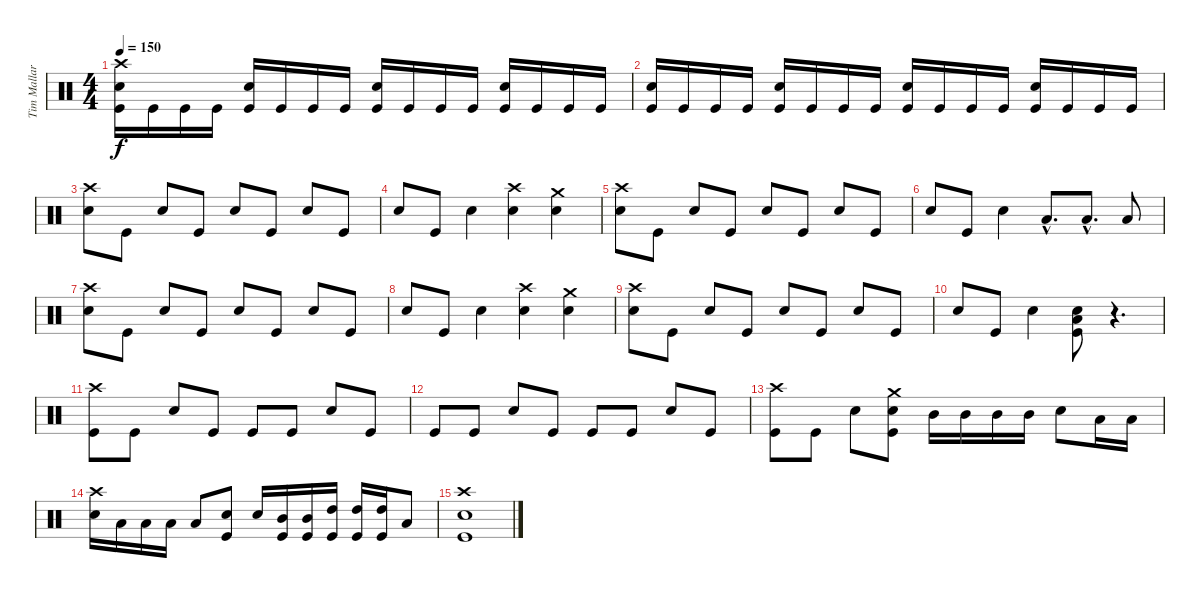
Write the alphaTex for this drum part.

\track ("Tim Mallare-Drums" "Tim Mallar") {instrument percussion}
\staff {score}
\articulation defaults
\ts (4 4)
\tempo 150
\clef neutral
\ks c
("Crash high (hit)" "Electric Snare (hit)" "Kick (hit)").16{dy f} "Kick (hit)".16 "Kick (hit)".16 "Kick (hit)".16 ("Electric Snare (hit)" "Kick (hit)").16 "Kick (hit)".16 "Kick (hit)".16 "Kick (hit)".16 ("Electric Snare (hit)" "Kick (hit)").16 "Kick (hit)".16 "Kick (hit)".16 "Kick (hit)".16 ("Electric Snare (hit)" "Kick (hit)").16 "Kick (hit)".16 "Kick (hit)".16 "Kick (hit)".16 |
("Electric Snare (hit)" "Kick (hit)").16 "Kick (hit)".16 "Kick (hit)".16 "Kick (hit)".16 ("Electric Snare (hit)" "Kick (hit)").16 "Kick (hit)".16 "Kick (hit)".16 "Kick (hit)".16 ("Electric Snare (hit)" "Kick (hit)").16 "Kick (hit)".16 "Kick (hit)".16 "Kick (hit)".16 ("Electric Snare (hit)" "Kick (hit)").16 "Kick (hit)".16 "Kick (hit)".16 "Kick (hit)".16 |
("Crash high (hit)" "Electric Snare (hit)").8 "Kick (hit)".8 "Electric Snare (hit)".8 "Kick (hit)".8 "Electric Snare (hit)".8 "Kick (hit)".8 "Electric Snare (hit)".8 "Kick (hit)".8 |
"Electric Snare (hit)".8 "Kick (hit)".8 "Electric Snare (hit)".4 ("Crash high (hit)" "Electric Snare (hit)").4 ("Crash medium (hit)" "Electric Snare (hit)").4 |
("Crash high (hit)" "Electric Snare (hit)").8 "Kick (hit)".8 "Electric Snare (hit)".8 "Kick (hit)".8 "Electric Snare (hit)".8 "Kick (hit)".8 "Electric Snare (hit)".8 "Kick (hit)".8 |
"Electric Snare (hit)".8 "Kick (hit)".8 "Electric Snare (hit)".4 "Low Tom (hit)"{hac}.8{d} "Low Tom (hit)"{hac}.8{d} "Low Tom (hit)".8 |
("Crash high (hit)" "Electric Snare (hit)").8 "Kick (hit)".8 "Electric Snare (hit)".8 "Kick (hit)".8 "Electric Snare (hit)".8 "Kick (hit)".8 "Electric Snare (hit)".8 "Kick (hit)".8 |
"Electric Snare (hit)".8 "Kick (hit)".8 "Electric Snare (hit)".4 ("Crash high (hit)" "Electric Snare (hit)").4 ("Crash medium (hit)" "Electric Snare (hit)").4 |
("Crash high (hit)" "Electric Snare (hit)").8 "Kick (hit)".8 "Electric Snare (hit)".8 "Kick (hit)".8 "Electric Snare (hit)".8 "Kick (hit)".8 "Electric Snare (hit)".8 "Kick (hit)".8 |
"Electric Snare (hit)".8 "Kick (hit)".8 "Electric Snare (hit)".4 ("Low Tom (hit)" "Electric Snare (hit)" "Kick (hit)").8 r.4{d} |
("Crash high (hit)" "Kick (hit)").8 "Kick (hit)".8 "Electric Snare (hit)".8 "Kick (hit)".8 "Kick (hit)".8 "Kick (hit)".8 "Electric Snare (hit)".8 "Kick (hit)".8 |
"Kick (hit)".8 "Kick (hit)".8 "Electric Snare (hit)".8 "Kick (hit)".8 "Kick (hit)".8 "Kick (hit)".8 "Electric Snare (hit)".8 "Kick (hit)".8 |
("Crash high (hit)" "Kick (hit)").8 "Kick (hit)".8 "Electric Snare (hit)".8 ("Crash medium (hit)" "Electric Snare (hit)" "Kick (hit)").8 "Mid Tom (hit)".16 "Mid Tom (hit)".16 "Mid Tom (hit)".16 "Mid Tom (hit)".16 "Electric Snare (hit)".8 "Low Tom (hit)".16 "Low Tom (hit)".16 |
("Crash high (hit)" "Electric Snare (hit)").16 "Low Tom (hit)".16 "Low Tom (hit)".16 "Low Tom (hit)".16 "Low Tom (hit)".8 ("Electric Snare (hit)" "Kick (hit)").8 "Electric Snare (hit)".16 ("Mid Tom (hit)" "Kick (hit)").16 ("Mid Tom (hit)" "Kick (hit)").16 ("High Tom (hit)" "Kick (hit)").16 ("High Tom (hit)" "Kick (hit)").16 ("High Tom (hit)" "Kick (hit)").16 "Low Tom (hit)".8 |
("Crash high (hit)" "Electric Snare (hit)" "Kick (hit)").1
